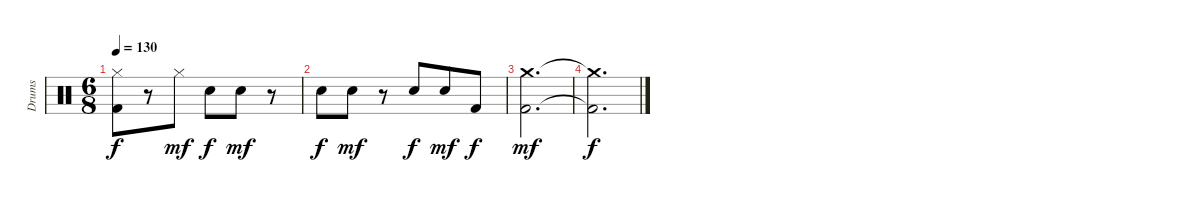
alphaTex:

\track ("Drums" "Drums") {instrument percussion}
\staff {score}
\articulation defaults
\ts (6 8)
\tempo 130
\clef neutral
\ks c
("Hi-Hat (closed)" "Kick (hit) 2").8{dy f} r.8 "Hi-Hat (closed)".8{dy mf} "Snare (hit) 2".8{dy f} "Snare (hit) 2".8{dy mf} r.8 |
"Snare (hit) 2".8{dy f} "Snare (hit) 2".8{dy mf} r.8 "Snare (hit) 2".8{dy f} "Snare (hit) 2".8{dy mf} "Kick (hit) 2".8{dy f} |
("Crash medium (hit)" "Kick (hit) 2").2{d dy mf} |
("Crash medium (hit)"{t} "Kick (hit) 2"{t}).2{d dy f}
